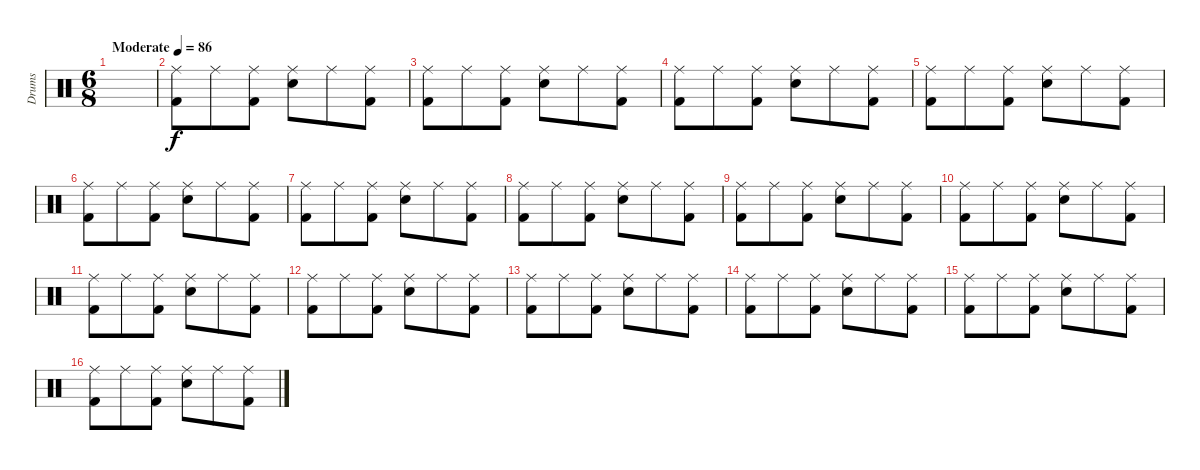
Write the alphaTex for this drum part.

\track ("Drums" "Drums") {instrument percussion}
\staff {score}
\articulation defaults
\ts (6 8)
\tempo (86 "Moderate")
\clef neutral
\ks c
|
("Ride (middle)" "Kick (hit) 2").8 "Ride (middle)".8 ("Ride (middle)" "Kick (hit) 2").8 ("Ride (middle)" "Snare (hit) 2").8 "Ride (middle)".8 ("Ride (middle)" "Kick (hit) 2").8 |
("Ride (middle)" "Kick (hit) 2").8 "Ride (middle)".8 ("Ride (middle)" "Kick (hit) 2").8 ("Ride (middle)" "Snare (hit) 2").8 "Ride (middle)".8 ("Ride (middle)" "Kick (hit) 2").8 |
("Ride (middle)" "Kick (hit) 2").8 "Ride (middle)".8 ("Ride (middle)" "Kick (hit) 2").8 ("Ride (middle)" "Snare (hit) 2").8 "Ride (middle)".8 ("Ride (middle)" "Kick (hit) 2").8 |
("Ride (middle)" "Kick (hit) 2").8 "Ride (middle)".8 ("Ride (middle)" "Kick (hit) 2").8 ("Ride (middle)" "Snare (hit) 2").8 "Ride (middle)".8 ("Ride (middle)" "Kick (hit) 2").8 |
("Ride (middle)" "Kick (hit) 2").8 "Ride (middle)".8 ("Ride (middle)" "Kick (hit) 2").8 ("Ride (middle)" "Snare (hit) 2").8 "Ride (middle)".8 ("Ride (middle)" "Kick (hit) 2").8 |
("Ride (middle)" "Kick (hit) 2").8 "Ride (middle)".8 ("Ride (middle)" "Kick (hit) 2").8 ("Ride (middle)" "Snare (hit) 2").8 "Ride (middle)".8 ("Ride (middle)" "Kick (hit) 2").8 |
("Ride (middle)" "Kick (hit) 2").8 "Ride (middle)".8 ("Ride (middle)" "Kick (hit) 2").8 ("Ride (middle)" "Snare (hit) 2").8 "Ride (middle)".8 ("Ride (middle)" "Kick (hit) 2").8 |
("Ride (middle)" "Kick (hit) 2").8 "Ride (middle)".8 ("Ride (middle)" "Kick (hit) 2").8 ("Ride (middle)" "Snare (hit) 2").8 "Ride (middle)".8 ("Ride (middle)" "Kick (hit) 2").8 |
("Ride (middle)" "Kick (hit) 2").8 "Ride (middle)".8 ("Ride (middle)" "Kick (hit) 2").8 ("Ride (middle)" "Snare (hit) 2").8 "Ride (middle)".8 ("Ride (middle)" "Kick (hit) 2").8 |
("Ride (middle)" "Kick (hit) 2").8 "Ride (middle)".8 ("Ride (middle)" "Kick (hit) 2").8 ("Ride (middle)" "Snare (hit) 2").8 "Ride (middle)".8 ("Ride (middle)" "Kick (hit) 2").8 |
("Ride (middle)" "Kick (hit) 2").8 "Ride (middle)".8 ("Ride (middle)" "Kick (hit) 2").8 ("Ride (middle)" "Snare (hit) 2").8 "Ride (middle)".8 ("Ride (middle)" "Kick (hit) 2").8 |
("Ride (middle)" "Kick (hit) 2").8 "Ride (middle)".8 ("Ride (middle)" "Kick (hit) 2").8 ("Ride (middle)" "Snare (hit) 2").8 "Ride (middle)".8 ("Ride (middle)" "Kick (hit) 2").8 |
("Ride (middle)" "Kick (hit) 2").8 "Ride (middle)".8 ("Ride (middle)" "Kick (hit) 2").8 ("Ride (middle)" "Snare (hit) 2").8 "Ride (middle)".8 ("Ride (middle)" "Kick (hit) 2").8 |
("Ride (middle)" "Kick (hit) 2").8 "Ride (middle)".8 ("Ride (middle)" "Kick (hit) 2").8 ("Ride (middle)" "Snare (hit) 2").8 "Ride (middle)".8 ("Ride (middle)" "Kick (hit) 2").8 |
("Ride (middle)" "Kick (hit) 2").8 "Ride (middle)".8 ("Ride (middle)" "Kick (hit) 2").8 ("Ride (middle)" "Snare (hit) 2").8 "Ride (middle)".8 ("Ride (middle)" "Kick (hit) 2").8
